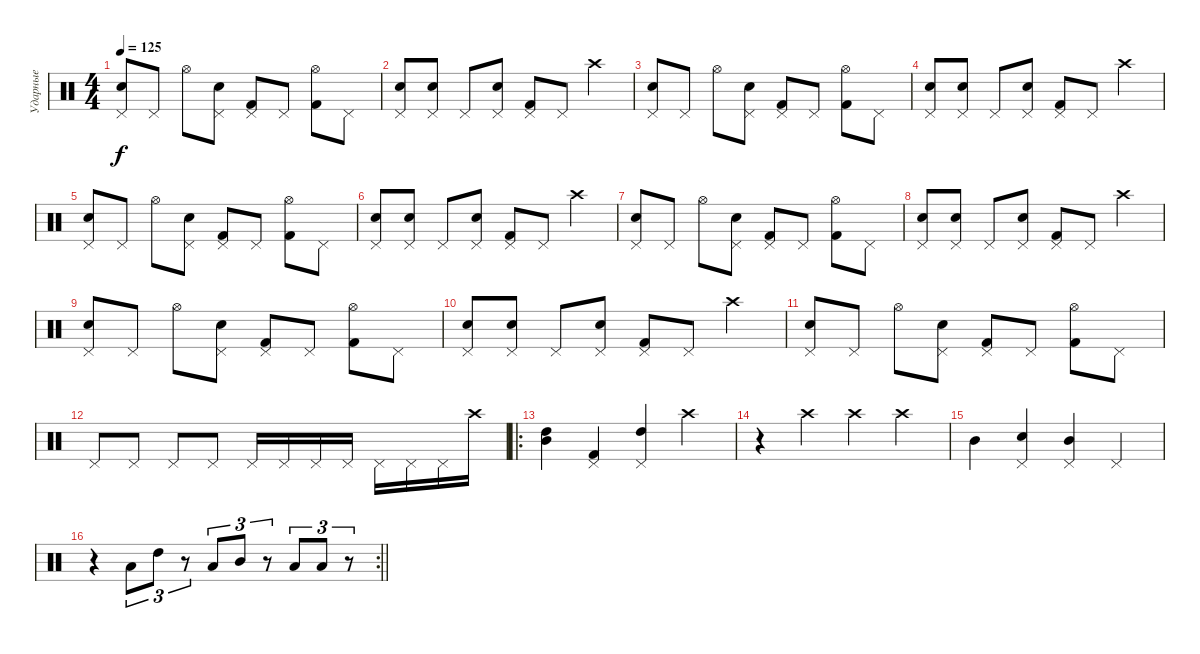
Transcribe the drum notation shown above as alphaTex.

\track ("Ударные" "Ударные") {instrument percussion}
\staff {score}
\articulation defaults
\ts (4 4)
\tempo 125
\clef neutral
\ks c
("Pedal Hi-Hat (hit)" "Snare (hit) 2").8{dy f} "Pedal Hi-Hat (hit)".8 "Hi-Hat (open)".8 ("Pedal Hi-Hat (hit)" "Snare (hit) 2").8 ("Pedal Hi-Hat (hit)" "Kick (hit) 2").8 "Pedal Hi-Hat (hit)".8 ("Hi-Hat (open)" "Kick (hit) 2").8 "Pedal Hi-Hat (hit)".8 |
("Pedal Hi-Hat (hit)" "Snare (hit) 2").8 ("Pedal Hi-Hat (hit)" "Snare (hit) 2").8 "Pedal Hi-Hat (hit)".8 ("Pedal Hi-Hat (hit)" "Snare (hit) 2").8 ("Pedal Hi-Hat (hit)" "Kick (hit) 2").8 "Pedal Hi-Hat (hit)".8 "Crash high (hit)".4 |
("Pedal Hi-Hat (hit)" "Snare (hit) 2").8 "Pedal Hi-Hat (hit)".8 "Hi-Hat (open)".8 ("Pedal Hi-Hat (hit)" "Snare (hit) 2").8 ("Pedal Hi-Hat (hit)" "Kick (hit) 2").8 "Pedal Hi-Hat (hit)".8 ("Hi-Hat (open)" "Kick (hit) 2").8 "Pedal Hi-Hat (hit)".8 |
("Pedal Hi-Hat (hit)" "Snare (hit) 2").8 ("Pedal Hi-Hat (hit)" "Snare (hit) 2").8 "Pedal Hi-Hat (hit)".8 ("Pedal Hi-Hat (hit)" "Snare (hit) 2").8 ("Pedal Hi-Hat (hit)" "Kick (hit) 2").8 "Pedal Hi-Hat (hit)".8 "Crash high (hit)".4 |
("Pedal Hi-Hat (hit)" "Snare (hit) 2").8 "Pedal Hi-Hat (hit)".8 "Hi-Hat (open)".8 ("Pedal Hi-Hat (hit)" "Snare (hit) 2").8 ("Pedal Hi-Hat (hit)" "Kick (hit) 2").8 "Pedal Hi-Hat (hit)".8 ("Hi-Hat (open)" "Kick (hit) 2").8 "Pedal Hi-Hat (hit)".8 |
("Pedal Hi-Hat (hit)" "Snare (hit) 2").8 ("Pedal Hi-Hat (hit)" "Snare (hit) 2").8 "Pedal Hi-Hat (hit)".8 ("Pedal Hi-Hat (hit)" "Snare (hit) 2").8 ("Pedal Hi-Hat (hit)" "Kick (hit) 2").8 "Pedal Hi-Hat (hit)".8 "Crash high (hit)".4 |
("Pedal Hi-Hat (hit)" "Snare (hit) 2").8 "Pedal Hi-Hat (hit)".8 "Hi-Hat (open)".8 ("Pedal Hi-Hat (hit)" "Snare (hit) 2").8 ("Pedal Hi-Hat (hit)" "Kick (hit) 2").8 "Pedal Hi-Hat (hit)".8 ("Hi-Hat (open)" "Kick (hit) 2").8 "Pedal Hi-Hat (hit)".8 |
("Pedal Hi-Hat (hit)" "Snare (hit) 2").8 ("Pedal Hi-Hat (hit)" "Snare (hit) 2").8 "Pedal Hi-Hat (hit)".8 ("Pedal Hi-Hat (hit)" "Snare (hit) 2").8 ("Pedal Hi-Hat (hit)" "Kick (hit) 2").8 "Pedal Hi-Hat (hit)".8 "Crash high (hit)".4 |
("Pedal Hi-Hat (hit)" "Snare (hit) 2").8 "Pedal Hi-Hat (hit)".8 "Hi-Hat (open)".8 ("Pedal Hi-Hat (hit)" "Snare (hit) 2").8 ("Pedal Hi-Hat (hit)" "Kick (hit) 2").8 "Pedal Hi-Hat (hit)".8 ("Hi-Hat (open)" "Kick (hit) 2").8 "Pedal Hi-Hat (hit)".8 |
("Pedal Hi-Hat (hit)" "Snare (hit) 2").8 ("Pedal Hi-Hat (hit)" "Snare (hit) 2").8 "Pedal Hi-Hat (hit)".8 ("Pedal Hi-Hat (hit)" "Snare (hit) 2").8 ("Pedal Hi-Hat (hit)" "Kick (hit) 2").8 "Pedal Hi-Hat (hit)".8 "Crash high (hit)".4 |
("Pedal Hi-Hat (hit)" "Snare (hit) 2").8 "Pedal Hi-Hat (hit)".8 "Hi-Hat (open)".8 ("Pedal Hi-Hat (hit)" "Snare (hit) 2").8 ("Pedal Hi-Hat (hit)" "Kick (hit) 2").8 "Pedal Hi-Hat (hit)".8 ("Hi-Hat (open)" "Kick (hit) 2").8 "Pedal Hi-Hat (hit)".8 |
"Pedal Hi-Hat (hit)".8 "Pedal Hi-Hat (hit)".8 "Pedal Hi-Hat (hit)".8 "Pedal Hi-Hat (hit)".8 "Pedal Hi-Hat (hit)".16 "Pedal Hi-Hat (hit)".16 "Pedal Hi-Hat (hit)".16 "Pedal Hi-Hat (hit)".16 "Pedal Hi-Hat (hit)".16 "Pedal Hi-Hat (hit)".16 "Pedal Hi-Hat (hit)".16 "Crash high (hit)".16 |
\ro
("High Tom (hit)" "Mid Tom (hit)").4 ("Pedal Hi-Hat (hit)" "Kick (hit) 2").4 ("Pedal Hi-Hat (hit)" "High Tom (hit)").4 "Crash high (hit)".4 |
r.4 "Crash high (hit)".4 "Crash high (hit)".4 "Crash high (hit)".4 |
"Mid Tom (hit)".4 ("Pedal Hi-Hat (hit)" "Snare (hit) 2").4 ("Pedal Hi-Hat (hit)" "Mid Tom (hit)").4 "Pedal Hi-Hat (hit)".4 |
\rc 2
\barLineRight lightlight
r.4 "Low Tom (hit)".8{tu (3 2)} "High Tom (hit)".8{tu (3 2)} r.8{tu (3 2)} "Low Tom (hit)".8{tu (3 2)} "Mid Tom (hit)".8{tu (3 2)} r.8{tu (3 2)} "Low Tom (hit)".8{tu (3 2)} "Low Tom (hit)".8{tu (3 2)} r.8{tu (3 2)}
